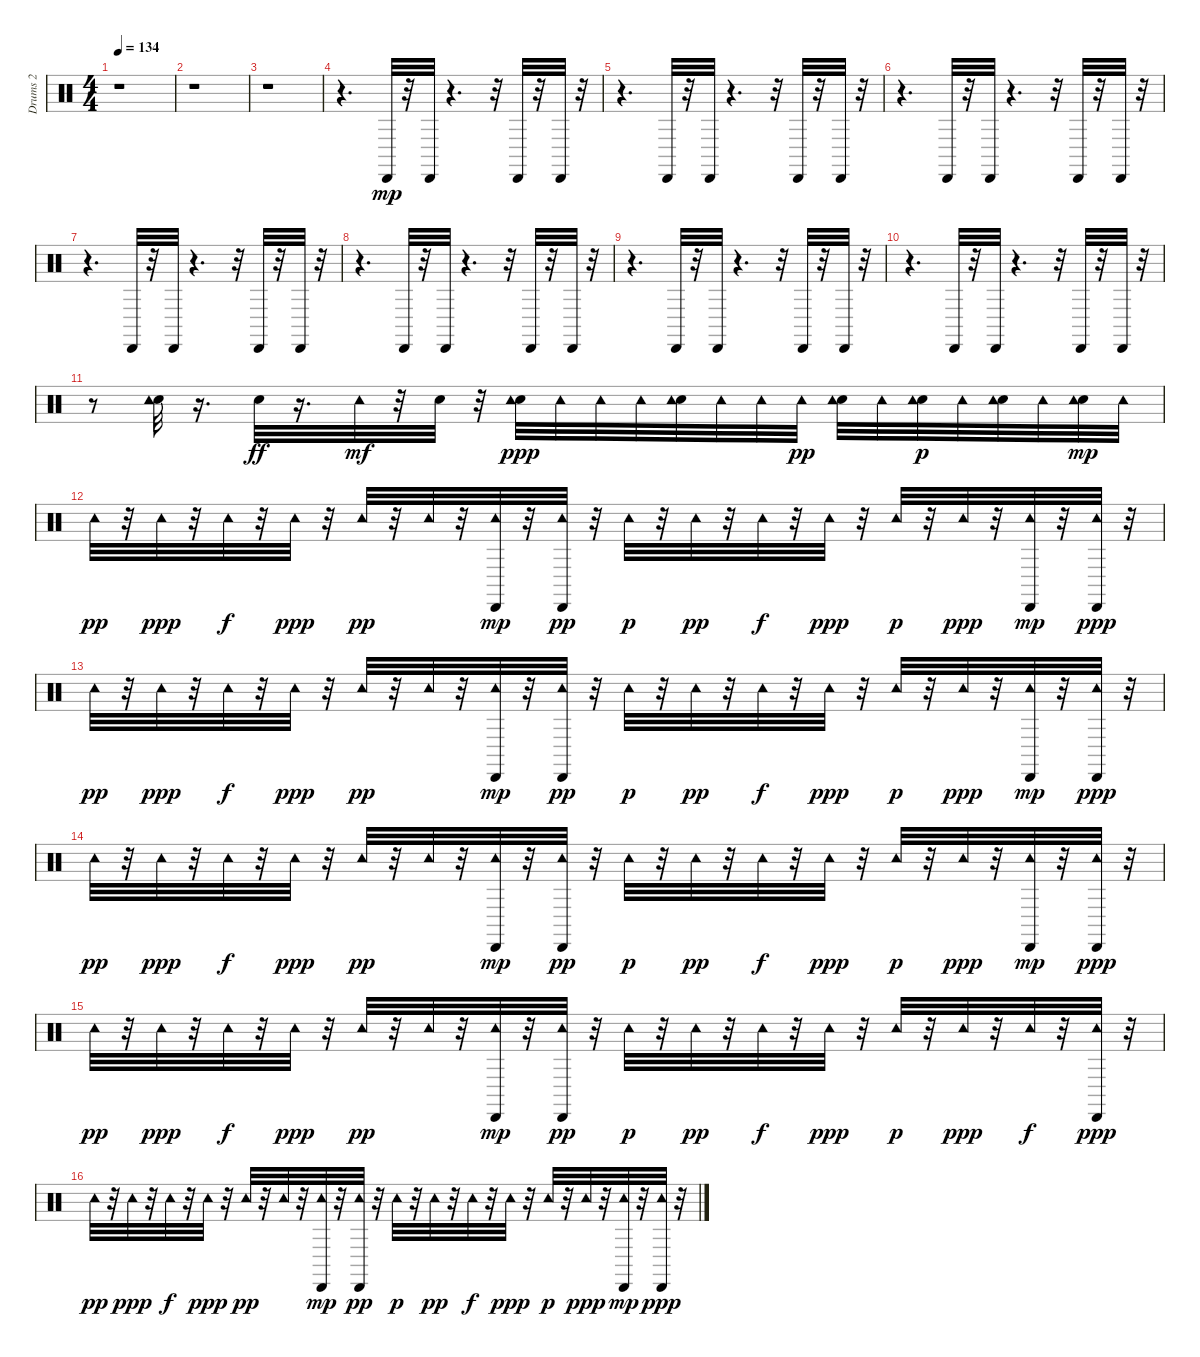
\track ("Drums 2" "Drums 2") {instrument percussion}
\staff {score}
\articulation defaults
\ts (4 4)
\tempo 134
\clef neutral
\ks c
r.1{dy ppp} |
r.1 |
r.1 |
r.4{d} "Cabasa (hit)".32{dy mp} r.32 "Cabasa (hit)".32 r.4{d} r.32 "Cabasa (hit)".32 r.32 "Cabasa (hit)".32 r.32 |
r.4{d} "Cabasa (hit)".32 r.32 "Cabasa (hit)".32 r.4{d} r.32 "Cabasa (hit)".32 r.32 "Cabasa (hit)".32 r.32 |
r.4{d} "Cabasa (hit)".32 r.32 "Cabasa (hit)".32 r.4{d} r.32 "Cabasa (hit)".32 r.32 "Cabasa (hit)".32 r.32 |
r.4{d} "Cabasa (hit)".32 r.32 "Cabasa (hit)".32 r.4{d} r.32 "Cabasa (hit)".32 r.32 "Cabasa (hit)".32 r.32 |
r.4{d} "Cabasa (hit)".32 r.32 "Cabasa (hit)".32 r.4{d} r.32 "Cabasa (hit)".32 r.32 "Cabasa (hit)".32 r.32 |
r.4{d} "Cabasa (hit)".32 r.32 "Cabasa (hit)".32 r.4{d} r.32 "Cabasa (hit)".32 r.32 "Cabasa (hit)".32 r.32 |
r.4{d} "Cabasa (hit)".32 r.32 "Cabasa (hit)".32 r.4{d} r.32 "Cabasa (hit)".32 r.32 "Cabasa (hit)".32 r.32 |
r.8 ("Snare (hit) 2" "Tambourine (hit)").32 r.16{d} "Snare (hit) 2".32{dy ff} r.16{d} "Tambourine (hit)".32{dy mf} r.32 "Snare (hit) 2".32 r.32 ("Snare (hit) 2" "Tambourine (hit)").32{dy ppp} "Tambourine (hit)".32 "Tambourine (hit)".32 "Tambourine (hit)".32 ("Snare (hit) 2" "Tambourine (hit)").32 "Tambourine (hit)".32 "Tambourine (hit)".32 "Tambourine (hit)".32{dy pp} ("Snare (hit) 2" "Tambourine (hit)").32 "Tambourine (hit)".32 ("Snare (hit) 2" "Tambourine (hit)").32{dy p} "Tambourine (hit)".32 ("Snare (hit) 2" "Tambourine (hit)").32 "Tambourine (hit)".32 ("Snare (hit) 2" "Tambourine (hit)").32{dy mp} "Tambourine (hit)".32 |
"Tambourine (hit)".32{dy pp} r.32 "Tambourine (hit)".32{dy ppp} r.32 "Tambourine (hit)".32{dy f} r.32 "Tambourine (hit)".32{dy ppp} r.32 "Tambourine (hit)".32{dy pp} r.32 "Tambourine (hit)".32 r.32 ("Cabasa (hit)" "Tambourine (hit)").32{dy mp} r.32 ("Cabasa (hit)" "Tambourine (hit)").32{dy pp} r.32 "Tambourine (hit)".32{dy p} r.32 "Tambourine (hit)".32{dy pp} r.32 "Tambourine (hit)".32{dy f} r.32 "Tambourine (hit)".32{dy ppp} r.32 "Tambourine (hit)".32{dy p} r.32 "Tambourine (hit)".32{dy ppp} r.32 ("Cabasa (hit)" "Tambourine (hit)").32{dy mp} r.32 ("Cabasa (hit)" "Tambourine (hit)").32{dy ppp} r.32 |
"Tambourine (hit)".32{dy pp} r.32 "Tambourine (hit)".32{dy ppp} r.32 "Tambourine (hit)".32{dy f} r.32 "Tambourine (hit)".32{dy ppp} r.32 "Tambourine (hit)".32{dy pp} r.32 "Tambourine (hit)".32 r.32 ("Cabasa (hit)" "Tambourine (hit)").32{dy mp} r.32 ("Cabasa (hit)" "Tambourine (hit)").32{dy pp} r.32 "Tambourine (hit)".32{dy p} r.32 "Tambourine (hit)".32{dy pp} r.32 "Tambourine (hit)".32{dy f} r.32 "Tambourine (hit)".32{dy ppp} r.32 "Tambourine (hit)".32{dy p} r.32 "Tambourine (hit)".32{dy ppp} r.32 ("Cabasa (hit)" "Tambourine (hit)").32{dy mp} r.32 ("Cabasa (hit)" "Tambourine (hit)").32{dy ppp} r.32 |
"Tambourine (hit)".32{dy pp} r.32 "Tambourine (hit)".32{dy ppp} r.32 "Tambourine (hit)".32{dy f} r.32 "Tambourine (hit)".32{dy ppp} r.32 "Tambourine (hit)".32{dy pp} r.32 "Tambourine (hit)".32 r.32 ("Cabasa (hit)" "Tambourine (hit)").32{dy mp} r.32 ("Cabasa (hit)" "Tambourine (hit)").32{dy pp} r.32 "Tambourine (hit)".32{dy p} r.32 "Tambourine (hit)".32{dy pp} r.32 "Tambourine (hit)".32{dy f} r.32 "Tambourine (hit)".32{dy ppp} r.32 "Tambourine (hit)".32{dy p} r.32 "Tambourine (hit)".32{dy ppp} r.32 ("Cabasa (hit)" "Tambourine (hit)").32{dy mp} r.32 ("Cabasa (hit)" "Tambourine (hit)").32{dy ppp} r.32 |
"Tambourine (hit)".32{dy pp} r.32 "Tambourine (hit)".32{dy ppp} r.32 "Tambourine (hit)".32{dy f} r.32 "Tambourine (hit)".32{dy ppp} r.32 "Tambourine (hit)".32{dy pp} r.32 "Tambourine (hit)".32 r.32 ("Cabasa (hit)" "Tambourine (hit)").32{dy mp} r.32 ("Cabasa (hit)" "Tambourine (hit)").32{dy pp} r.32 "Tambourine (hit)".32{dy p} r.32 "Tambourine (hit)".32{dy pp} r.32 "Tambourine (hit)".32{dy f} r.32 "Tambourine (hit)".32{dy ppp} r.32 "Tambourine (hit)".32{dy p} r.32 "Tambourine (hit)".32{dy ppp} r.32 "Tambourine (hit)".32{dy f} r.32 ("Cabasa (hit)" "Tambourine (hit)").32{dy ppp} r.32 |
"Tambourine (hit)".32{dy pp} r.32 "Tambourine (hit)".32{dy ppp} r.32 "Tambourine (hit)".32{dy f} r.32 "Tambourine (hit)".32{dy ppp} r.32 "Tambourine (hit)".32{dy pp} r.32 "Tambourine (hit)".32 r.32 ("Cabasa (hit)" "Tambourine (hit)").32{dy mp} r.32 ("Cabasa (hit)" "Tambourine (hit)").32{dy pp} r.32 "Tambourine (hit)".32{dy p} r.32 "Tambourine (hit)".32{dy pp} r.32 "Tambourine (hit)".32{dy f} r.32 "Tambourine (hit)".32{dy ppp} r.32 "Tambourine (hit)".32{dy p} r.32 "Tambourine (hit)".32{dy ppp} r.32 ("Cabasa (hit)" "Tambourine (hit)").32{dy mp} r.32 ("Cabasa (hit)" "Tambourine (hit)").32{dy ppp} r.32
